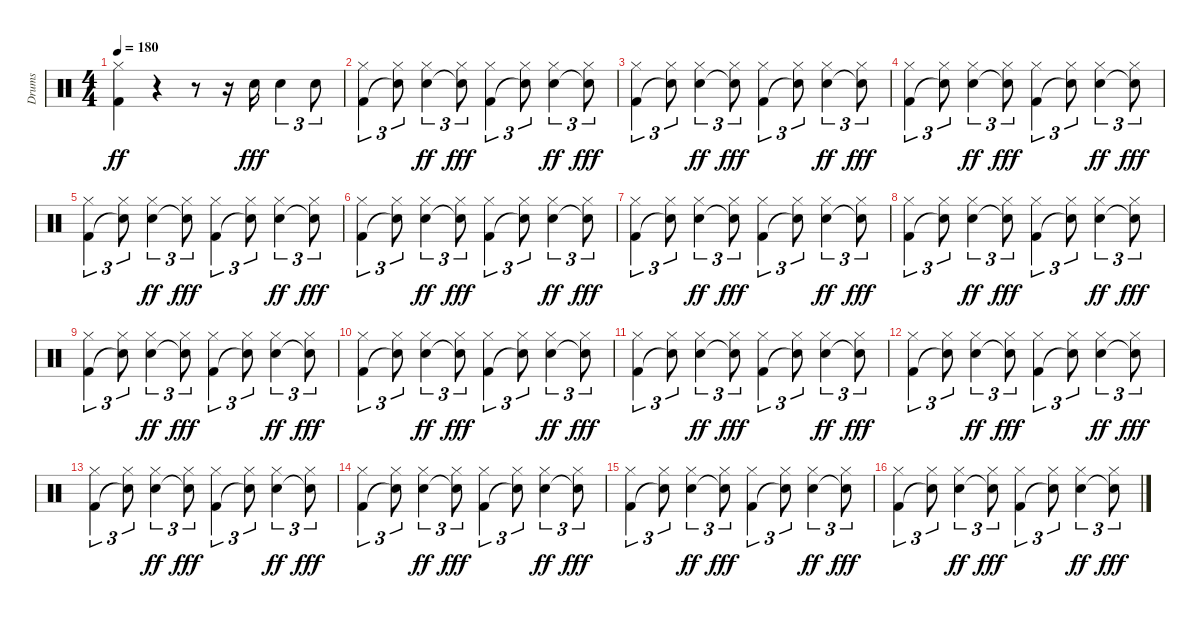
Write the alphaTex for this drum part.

\track ("Drums" "Drums") {instrument percussion}
\staff {score}
\articulation defaults
\ts (4 4)
\tempo 180
\clef neutral
\ks c
("Hi-Hat (closed)" "Kick (hit) 2").4{dy ff} r.4 r.8 r.16 "Electric Snare (hit)".16{dy fff} "Electric Snare (hit)".4{tu (3 2)} "Electric Snare (hit)".8{tu (3 2)} |
("Hi-Hat (closed)" "Kick (hit) 2").4{tu (3 2)} ("Hi-Hat (closed)" "Snare (hit)"{t}).8{tu (3 2)} ("Hi-Hat (closed)" "Electric Snare (hit)").4{tu (3 2) dy ff} ("Hi-Hat (closed)" "Snare (hit)"{t}).8{tu (3 2) dy fff} ("Hi-Hat (closed)" "Kick (hit) 2").4{tu (3 2)} ("Hi-Hat (closed)" "Snare (hit)"{t}).8{tu (3 2)} ("Hi-Hat (closed)" "Electric Snare (hit)").4{tu (3 2) dy ff} ("Hi-Hat (closed)" "Snare (hit)"{t}).8{tu (3 2) dy fff} |
("Hi-Hat (closed)" "Kick (hit) 2").4{tu (3 2)} ("Hi-Hat (closed)" "Snare (hit)"{t}).8{tu (3 2)} ("Hi-Hat (closed)" "Electric Snare (hit)").4{tu (3 2) dy ff} ("Hi-Hat (closed)" "Snare (hit)"{t}).8{tu (3 2) dy fff} ("Hi-Hat (closed)" "Kick (hit) 2").4{tu (3 2)} ("Hi-Hat (closed)" "Snare (hit)"{t}).8{tu (3 2)} ("Hi-Hat (closed)" "Electric Snare (hit)").4{tu (3 2) dy ff} ("Hi-Hat (closed)" "Snare (hit)"{t}).8{tu (3 2) dy fff} |
("Hi-Hat (closed)" "Kick (hit) 2").4{tu (3 2)} ("Hi-Hat (closed)" "Snare (hit)"{t}).8{tu (3 2)} ("Hi-Hat (closed)" "Electric Snare (hit)").4{tu (3 2) dy ff} ("Hi-Hat (closed)" "Snare (hit)"{t}).8{tu (3 2) dy fff} ("Hi-Hat (closed)" "Kick (hit) 2").4{tu (3 2)} ("Hi-Hat (closed)" "Snare (hit)"{t}).8{tu (3 2)} ("Hi-Hat (closed)" "Electric Snare (hit)").4{tu (3 2) dy ff} ("Hi-Hat (closed)" "Snare (hit)"{t}).8{tu (3 2) dy fff} |
("Hi-Hat (closed)" "Kick (hit) 2").4{tu (3 2)} ("Hi-Hat (closed)" "Snare (hit)"{t}).8{tu (3 2)} ("Hi-Hat (closed)" "Electric Snare (hit)").4{tu (3 2) dy ff} ("Hi-Hat (closed)" "Snare (hit)"{t}).8{tu (3 2) dy fff} ("Hi-Hat (closed)" "Kick (hit) 2").4{tu (3 2)} ("Hi-Hat (closed)" "Snare (hit)"{t}).8{tu (3 2)} ("Hi-Hat (closed)" "Electric Snare (hit)").4{tu (3 2) dy ff} ("Hi-Hat (closed)" "Snare (hit)"{t}).8{tu (3 2) dy fff} |
("Hi-Hat (closed)" "Kick (hit) 2").4{tu (3 2)} ("Hi-Hat (closed)" "Snare (hit)"{t}).8{tu (3 2)} ("Hi-Hat (closed)" "Electric Snare (hit)").4{tu (3 2) dy ff} ("Hi-Hat (closed)" "Snare (hit)"{t}).8{tu (3 2) dy fff} ("Hi-Hat (closed)" "Kick (hit) 2").4{tu (3 2)} ("Hi-Hat (closed)" "Snare (hit)"{t}).8{tu (3 2)} ("Hi-Hat (closed)" "Electric Snare (hit)").4{tu (3 2) dy ff} ("Hi-Hat (closed)" "Snare (hit)"{t}).8{tu (3 2) dy fff} |
("Hi-Hat (closed)" "Kick (hit) 2").4{tu (3 2)} ("Hi-Hat (closed)" "Snare (hit)"{t}).8{tu (3 2)} ("Hi-Hat (closed)" "Electric Snare (hit)").4{tu (3 2) dy ff} ("Hi-Hat (closed)" "Snare (hit)"{t}).8{tu (3 2) dy fff} ("Hi-Hat (closed)" "Kick (hit) 2").4{tu (3 2)} ("Hi-Hat (closed)" "Snare (hit)"{t}).8{tu (3 2)} ("Hi-Hat (closed)" "Electric Snare (hit)").4{tu (3 2) dy ff} ("Hi-Hat (closed)" "Snare (hit)"{t}).8{tu (3 2) dy fff} |
("Hi-Hat (closed)" "Kick (hit) 2").4{tu (3 2)} ("Hi-Hat (closed)" "Snare (hit)"{t}).8{tu (3 2)} ("Hi-Hat (closed)" "Electric Snare (hit)").4{tu (3 2) dy ff} ("Hi-Hat (closed)" "Snare (hit)"{t}).8{tu (3 2) dy fff} ("Hi-Hat (closed)" "Kick (hit) 2").4{tu (3 2)} ("Hi-Hat (closed)" "Snare (hit)"{t}).8{tu (3 2)} ("Hi-Hat (closed)" "Electric Snare (hit)").4{tu (3 2) dy ff} ("Hi-Hat (closed)" "Snare (hit)"{t}).8{tu (3 2) dy fff} |
("Hi-Hat (closed)" "Kick (hit) 2").4{tu (3 2)} ("Hi-Hat (closed)" "Snare (hit)"{t}).8{tu (3 2)} ("Hi-Hat (closed)" "Electric Snare (hit)").4{tu (3 2) dy ff} ("Hi-Hat (closed)" "Snare (hit)"{t}).8{tu (3 2) dy fff} ("Hi-Hat (closed)" "Kick (hit) 2").4{tu (3 2)} ("Hi-Hat (closed)" "Snare (hit)"{t}).8{tu (3 2)} ("Hi-Hat (closed)" "Electric Snare (hit)").4{tu (3 2) dy ff} ("Hi-Hat (closed)" "Snare (hit)"{t}).8{tu (3 2) dy fff} |
("Hi-Hat (closed)" "Kick (hit) 2").4{tu (3 2)} ("Hi-Hat (closed)" "Snare (hit)"{t}).8{tu (3 2)} ("Hi-Hat (closed)" "Electric Snare (hit)").4{tu (3 2) dy ff} ("Hi-Hat (closed)" "Snare (hit)"{t}).8{tu (3 2) dy fff} ("Hi-Hat (closed)" "Kick (hit) 2").4{tu (3 2)} ("Hi-Hat (closed)" "Snare (hit)"{t}).8{tu (3 2)} ("Hi-Hat (closed)" "Electric Snare (hit)").4{tu (3 2) dy ff} ("Hi-Hat (closed)" "Snare (hit)"{t}).8{tu (3 2) dy fff} |
("Hi-Hat (closed)" "Kick (hit) 2").4{tu (3 2)} ("Hi-Hat (closed)" "Snare (hit)"{t}).8{tu (3 2)} ("Hi-Hat (closed)" "Electric Snare (hit)").4{tu (3 2) dy ff} ("Hi-Hat (closed)" "Snare (hit)"{t}).8{tu (3 2) dy fff} ("Hi-Hat (closed)" "Kick (hit) 2").4{tu (3 2)} ("Hi-Hat (closed)" "Snare (hit)"{t}).8{tu (3 2)} ("Hi-Hat (closed)" "Electric Snare (hit)").4{tu (3 2) dy ff} ("Hi-Hat (closed)" "Snare (hit)"{t}).8{tu (3 2) dy fff} |
("Hi-Hat (closed)" "Kick (hit) 2").4{tu (3 2)} ("Hi-Hat (closed)" "Snare (hit)"{t}).8{tu (3 2)} ("Hi-Hat (closed)" "Electric Snare (hit)").4{tu (3 2) dy ff} ("Hi-Hat (closed)" "Snare (hit)"{t}).8{tu (3 2) dy fff} ("Hi-Hat (closed)" "Kick (hit) 2").4{tu (3 2)} ("Hi-Hat (closed)" "Snare (hit)"{t}).8{tu (3 2)} ("Hi-Hat (closed)" "Electric Snare (hit)").4{tu (3 2) dy ff} ("Hi-Hat (closed)" "Snare (hit)"{t}).8{tu (3 2) dy fff} |
("Hi-Hat (closed)" "Kick (hit) 2").4{tu (3 2)} ("Hi-Hat (closed)" "Snare (hit)"{t}).8{tu (3 2)} ("Hi-Hat (closed)" "Electric Snare (hit)").4{tu (3 2) dy ff} ("Hi-Hat (closed)" "Snare (hit)"{t}).8{tu (3 2) dy fff} ("Hi-Hat (closed)" "Kick (hit) 2").4{tu (3 2)} ("Hi-Hat (closed)" "Snare (hit)"{t}).8{tu (3 2)} ("Hi-Hat (closed)" "Electric Snare (hit)").4{tu (3 2) dy ff} ("Hi-Hat (closed)" "Snare (hit)"{t}).8{tu (3 2) dy fff} |
("Hi-Hat (closed)" "Kick (hit) 2").4{tu (3 2)} ("Hi-Hat (closed)" "Snare (hit)"{t}).8{tu (3 2)} ("Hi-Hat (closed)" "Electric Snare (hit)").4{tu (3 2) dy ff} ("Hi-Hat (closed)" "Snare (hit)"{t}).8{tu (3 2) dy fff} ("Hi-Hat (closed)" "Kick (hit) 2").4{tu (3 2)} ("Hi-Hat (closed)" "Snare (hit)"{t}).8{tu (3 2)} ("Hi-Hat (closed)" "Electric Snare (hit)").4{tu (3 2) dy ff} ("Hi-Hat (closed)" "Snare (hit)"{t}).8{tu (3 2) dy fff} |
("Hi-Hat (closed)" "Kick (hit) 2").4{tu (3 2)} ("Hi-Hat (closed)" "Snare (hit)"{t}).8{tu (3 2)} ("Hi-Hat (closed)" "Electric Snare (hit)").4{tu (3 2) dy ff} ("Hi-Hat (closed)" "Snare (hit)"{t}).8{tu (3 2) dy fff} ("Hi-Hat (closed)" "Kick (hit) 2").4{tu (3 2)} ("Hi-Hat (closed)" "Snare (hit)"{t}).8{tu (3 2)} ("Hi-Hat (closed)" "Electric Snare (hit)").4{tu (3 2) dy ff} ("Hi-Hat (closed)" "Snare (hit)"{t}).8{tu (3 2) dy fff} |
("Hi-Hat (closed)" "Kick (hit) 2").4{tu (3 2)} ("Hi-Hat (closed)" "Snare (hit)"{t}).8{tu (3 2)} ("Hi-Hat (closed)" "Electric Snare (hit)").4{tu (3 2) dy ff} ("Hi-Hat (closed)" "Snare (hit)"{t}).8{tu (3 2) dy fff} ("Hi-Hat (closed)" "Kick (hit) 2").4{tu (3 2)} ("Hi-Hat (closed)" "Snare (hit)"{t}).8{tu (3 2)} ("Hi-Hat (closed)" "Electric Snare (hit)").4{tu (3 2) dy ff} ("Hi-Hat (closed)" "Snare (hit)"{t}).8{tu (3 2) dy fff}
